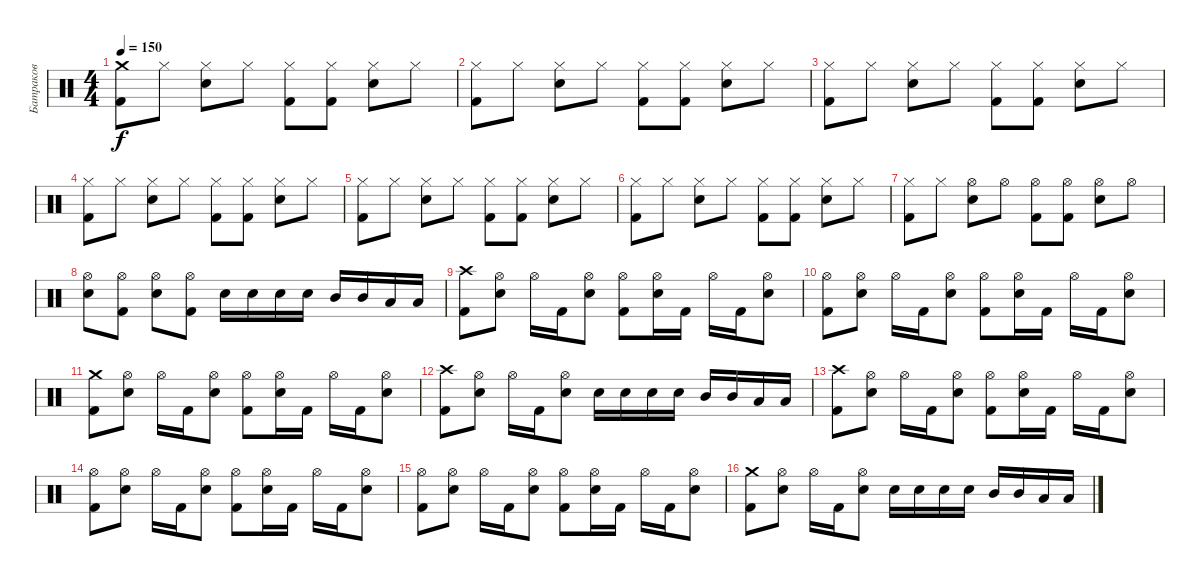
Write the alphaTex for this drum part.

\track ("Батраков" "Батраков") {instrument percussion}
\staff {score}
\articulation defaults
\ts (4 4)
\tempo 150
\clef neutral
\ks c
("Kick (hit) 2" "Crash medium (hit)").8{dy f} "Hi-Hat (closed)".8 ("Electric Snare (hit)" "Hi-Hat (closed)").8 "Hi-Hat (closed)".8 ("Kick (hit) 2" "Hi-Hat (closed)").8 ("Kick (hit) 2" "Hi-Hat (closed)").8 ("Electric Snare (hit)" "Hi-Hat (closed)").8 "Hi-Hat (closed)".8 |
("Kick (hit) 2" "Hi-Hat (closed)").8 "Hi-Hat (closed)".8 ("Electric Snare (hit)" "Hi-Hat (closed)").8 "Hi-Hat (closed)".8 ("Kick (hit) 2" "Hi-Hat (closed)").8 ("Kick (hit) 2" "Hi-Hat (closed)").8 ("Electric Snare (hit)" "Hi-Hat (closed)").8 "Hi-Hat (closed)".8 |
("Kick (hit) 2" "Hi-Hat (closed)").8 "Hi-Hat (closed)".8 ("Electric Snare (hit)" "Hi-Hat (closed)").8 "Hi-Hat (closed)".8 ("Kick (hit) 2" "Hi-Hat (closed)").8 ("Kick (hit) 2" "Hi-Hat (closed)").8 ("Electric Snare (hit)" "Hi-Hat (closed)").8 "Hi-Hat (closed)".8 |
("Kick (hit) 2" "Hi-Hat (closed)").8 "Hi-Hat (closed)".8 ("Electric Snare (hit)" "Hi-Hat (closed)").8 "Hi-Hat (closed)".8 ("Kick (hit) 2" "Hi-Hat (closed)").8 ("Kick (hit) 2" "Hi-Hat (closed)").8 ("Electric Snare (hit)" "Hi-Hat (closed)").8 "Hi-Hat (closed)".8 |
("Kick (hit) 2" "Hi-Hat (closed)").8 "Hi-Hat (closed)".8 ("Electric Snare (hit)" "Hi-Hat (closed)").8 "Hi-Hat (closed)".8 ("Kick (hit) 2" "Hi-Hat (closed)").8 ("Kick (hit) 2" "Hi-Hat (closed)").8 ("Electric Snare (hit)" "Hi-Hat (closed)").8 "Hi-Hat (closed)".8 |
("Kick (hit) 2" "Hi-Hat (closed)").8 "Hi-Hat (closed)".8 ("Electric Snare (hit)" "Hi-Hat (closed)").8 "Hi-Hat (closed)".8 ("Kick (hit) 2" "Hi-Hat (closed)").8 ("Kick (hit) 2" "Hi-Hat (closed)").8 ("Electric Snare (hit)" "Hi-Hat (closed)").8 "Hi-Hat (closed)".8 |
("Kick (hit) 2" "Hi-Hat (closed)").8 "Hi-Hat (closed)".8 ("Electric Snare (hit)" "Hi-Hat (open)").8 "Hi-Hat (open)".8 ("Kick (hit) 2" "Hi-Hat (open)").8 ("Kick (hit) 2" "Hi-Hat (open)").8 ("Electric Snare (hit)" "Hi-Hat (open)").8 "Hi-Hat (open)".8 |
("Electric Snare (hit)" "Hi-Hat (open)").8 ("Kick (hit) 2" "Hi-Hat (open)").8 ("Electric Snare (hit)" "Hi-Hat (open)").8 ("Kick (hit) 2" "Hi-Hat (open)").8 "Electric Snare (hit)".16 "Electric Snare (hit)".16 "Electric Snare (hit)".16 "Electric Snare (hit)".16 "Mid Tom (hit)".16 "Mid Tom (hit)".16 "Low Tom (hit)".16 "Low Tom (hit)".16 |
("Kick (hit) 2" "Crash high (hit)").8 ("Electric Snare (hit)" "Hi-Hat (open)").8 "Hi-Hat (open)".16 "Kick (hit) 2".16 ("Electric Snare (hit)" "Hi-Hat (open)").8 ("Kick (hit) 2" "Hi-Hat (open)").8 ("Electric Snare (hit)" "Hi-Hat (open)").16 "Kick (hit) 2".16 "Hi-Hat (open)".16 "Kick (hit) 2".16 ("Electric Snare (hit)" "Hi-Hat (open)").8 |
("Kick (hit) 2" "Hi-Hat (open)").8 ("Electric Snare (hit)" "Hi-Hat (open)").8 "Hi-Hat (open)".16 "Kick (hit) 2".16 ("Electric Snare (hit)" "Hi-Hat (open)").8 ("Kick (hit) 2" "Hi-Hat (open)").8 ("Electric Snare (hit)" "Hi-Hat (open)").16 "Kick (hit) 2".16 "Hi-Hat (open)".16 "Kick (hit) 2".16 ("Electric Snare (hit)" "Hi-Hat (open)").8 |
("Kick (hit) 2" "Crash medium (hit)").8 ("Electric Snare (hit)" "Hi-Hat (open)").8 "Hi-Hat (open)".16 "Kick (hit) 2".16 ("Electric Snare (hit)" "Hi-Hat (open)").8 ("Kick (hit) 2" "Hi-Hat (open)").8 ("Electric Snare (hit)" "Hi-Hat (open)").16 "Kick (hit) 2".16 "Hi-Hat (open)".16 "Kick (hit) 2".16 ("Electric Snare (hit)" "Hi-Hat (open)").8 |
("Kick (hit) 2" "Crash high (hit)").8 ("Electric Snare (hit)" "Hi-Hat (open)").8 "Hi-Hat (open)".16 "Kick (hit) 2".16 ("Electric Snare (hit)" "Hi-Hat (open)").8 "Electric Snare (hit)".16 "Electric Snare (hit)".16 "Electric Snare (hit)".16 "Electric Snare (hit)".16 "Mid Tom (hit)".16 "Mid Tom (hit)".16 "Low Tom (hit)".16 "Low Tom (hit)".16 |
("Kick (hit) 2" "Crash high (hit)").8 ("Electric Snare (hit)" "Hi-Hat (open)").8 "Hi-Hat (open)".16 "Kick (hit) 2".16 ("Electric Snare (hit)" "Hi-Hat (open)").8 ("Kick (hit) 2" "Hi-Hat (open)").8 ("Electric Snare (hit)" "Hi-Hat (open)").16 "Kick (hit) 2".16 "Hi-Hat (open)".16 "Kick (hit) 2".16 ("Electric Snare (hit)" "Hi-Hat (open)").8 |
("Kick (hit) 2" "Hi-Hat (open)").8 ("Electric Snare (hit)" "Hi-Hat (open)").8 "Hi-Hat (open)".16 "Kick (hit) 2".16 ("Electric Snare (hit)" "Hi-Hat (open)").8 ("Kick (hit) 2" "Hi-Hat (open)").8 ("Electric Snare (hit)" "Hi-Hat (open)").16 "Kick (hit) 2".16 "Hi-Hat (open)".16 "Kick (hit) 2".16 ("Electric Snare (hit)" "Hi-Hat (open)").8 |
("Kick (hit) 2" "Hi-Hat (open)").8 ("Electric Snare (hit)" "Hi-Hat (open)").8 "Hi-Hat (open)".16 "Kick (hit) 2".16 ("Electric Snare (hit)" "Hi-Hat (open)").8 ("Kick (hit) 2" "Hi-Hat (open)").8 ("Electric Snare (hit)" "Hi-Hat (open)").16 "Kick (hit) 2".16 "Hi-Hat (open)".16 "Kick (hit) 2".16 ("Electric Snare (hit)" "Hi-Hat (open)").8 |
("Kick (hit) 2" "Crash medium (hit)").8 ("Electric Snare (hit)" "Hi-Hat (open)").8 "Hi-Hat (open)".16 "Kick (hit) 2".16 ("Electric Snare (hit)" "Hi-Hat (open)").8 "Electric Snare (hit)".16 "Electric Snare (hit)".16 "Electric Snare (hit)".16 "Electric Snare (hit)".16 "Mid Tom (hit)".16 "Mid Tom (hit)".16 "Low Tom (hit)".16 "Low Tom (hit)".16
